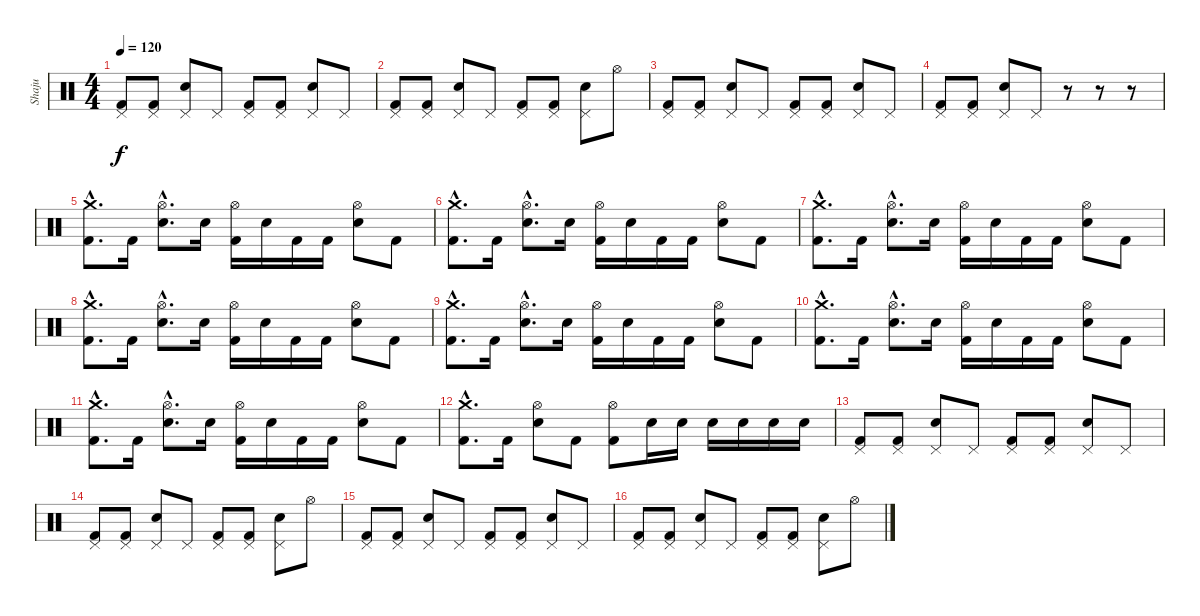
\track ("Shaju" "Shaju") {instrument percussion}
\staff {score}
\articulation defaults
\ts (4 4)
\tempo 120
\clef neutral
\ks c
("Pedal Hi-Hat (hit)" "Kick (hit) 2").8{dy f} ("Pedal Hi-Hat (hit)" "Kick (hit) 2").8 ("Pedal Hi-Hat (hit)" "Electric Snare (hit)").8 "Pedal Hi-Hat (hit)".8 ("Pedal Hi-Hat (hit)" "Kick (hit) 2").8 ("Pedal Hi-Hat (hit)" "Kick (hit) 2").8 ("Pedal Hi-Hat (hit)" "Electric Snare (hit)").8 "Pedal Hi-Hat (hit)".8 |
("Pedal Hi-Hat (hit)" "Kick (hit) 2").8 ("Pedal Hi-Hat (hit)" "Kick (hit) 2").8 ("Pedal Hi-Hat (hit)" "Electric Snare (hit)").8 "Pedal Hi-Hat (hit)".8 ("Pedal Hi-Hat (hit)" "Kick (hit) 2").8 ("Pedal Hi-Hat (hit)" "Kick (hit) 2").8 ("Pedal Hi-Hat (hit)" "Electric Snare (hit)").8 "Hi-Hat (open)".8 |
("Pedal Hi-Hat (hit)" "Kick (hit) 2").8 ("Pedal Hi-Hat (hit)" "Kick (hit) 2").8 ("Pedal Hi-Hat (hit)" "Electric Snare (hit)").8 "Pedal Hi-Hat (hit)".8 ("Pedal Hi-Hat (hit)" "Kick (hit) 2").8 ("Pedal Hi-Hat (hit)" "Kick (hit) 2").8 ("Pedal Hi-Hat (hit)" "Electric Snare (hit)").8 "Pedal Hi-Hat (hit)".8 |
("Pedal Hi-Hat (hit)" "Kick (hit) 2").8 ("Pedal Hi-Hat (hit)" "Kick (hit) 2").8 ("Pedal Hi-Hat (hit)" "Electric Snare (hit)").8 "Pedal Hi-Hat (hit)".8 r.8 r.8 r.8 |
("Crash medium (hit)"{hac} "Kick (hit) 2"{hac}).8{d} "Kick (hit) 2".16 ("Hi-Hat (open)"{hac} "Electric Snare (hit)"{hac}).8{d} "Electric Snare (hit)".16 ("Hi-Hat (open)" "Kick (hit) 2").16 "Electric Snare (hit)".16 "Kick (hit) 2".16 "Kick (hit) 2".16 ("Hi-Hat (open)" "Electric Snare (hit)").8 "Kick (hit) 2".8 |
("Crash medium (hit)"{hac} "Kick (hit) 2"{hac}).8{d} "Kick (hit) 2".16 ("Hi-Hat (open)"{hac} "Electric Snare (hit)"{hac}).8{d} "Electric Snare (hit)".16 ("Hi-Hat (open)" "Kick (hit) 2").16 "Electric Snare (hit)".16 "Kick (hit) 2".16 "Kick (hit) 2".16 ("Hi-Hat (open)" "Electric Snare (hit)").8 "Kick (hit) 2".8 |
("Crash medium (hit)"{hac} "Kick (hit) 2"{hac}).8{d} "Kick (hit) 2".16 ("Hi-Hat (open)"{hac} "Electric Snare (hit)"{hac}).8{d} "Electric Snare (hit)".16 ("Hi-Hat (open)" "Kick (hit) 2").16 "Electric Snare (hit)".16 "Kick (hit) 2".16 "Kick (hit) 2".16 ("Hi-Hat (open)" "Electric Snare (hit)").8 "Kick (hit) 2".8 |
("Crash medium (hit)"{hac} "Kick (hit) 2"{hac}).8{d} "Kick (hit) 2".16 ("Hi-Hat (open)"{hac} "Electric Snare (hit)"{hac}).8{d} "Electric Snare (hit)".16 ("Hi-Hat (open)" "Kick (hit) 2").16 "Electric Snare (hit)".16 "Kick (hit) 2".16 "Kick (hit) 2".16 ("Hi-Hat (open)" "Electric Snare (hit)").8 "Kick (hit) 2".8 |
("Crash medium (hit)"{hac} "Kick (hit) 2"{hac}).8{d} "Kick (hit) 2".16 ("Hi-Hat (open)"{hac} "Electric Snare (hit)"{hac}).8{d} "Electric Snare (hit)".16 ("Hi-Hat (open)" "Kick (hit) 2").16 "Electric Snare (hit)".16 "Kick (hit) 2".16 "Kick (hit) 2".16 ("Hi-Hat (open)" "Electric Snare (hit)").8 "Kick (hit) 2".8 |
("Crash medium (hit)"{hac} "Kick (hit) 2"{hac}).8{d} "Kick (hit) 2".16 ("Hi-Hat (open)"{hac} "Electric Snare (hit)"{hac}).8{d} "Electric Snare (hit)".16 ("Hi-Hat (open)" "Kick (hit) 2").16 "Electric Snare (hit)".16 "Kick (hit) 2".16 "Kick (hit) 2".16 ("Hi-Hat (open)" "Electric Snare (hit)").8 "Kick (hit) 2".8 |
("Crash medium (hit)"{hac} "Kick (hit) 2"{hac}).8{d} "Kick (hit) 2".16 ("Hi-Hat (open)"{hac} "Electric Snare (hit)"{hac}).8{d} "Electric Snare (hit)".16 ("Hi-Hat (open)" "Kick (hit) 2").16 "Electric Snare (hit)".16 "Kick (hit) 2".16 "Kick (hit) 2".16 ("Hi-Hat (open)" "Electric Snare (hit)").8 "Kick (hit) 2".8 |
("Crash medium (hit)"{hac} "Kick (hit) 2"{hac}).8{d} "Kick (hit) 2".16 ("Hi-Hat (open)" "Electric Snare (hit)").8 "Kick (hit) 2".8 ("Hi-Hat (open)" "Kick (hit) 2").8 "Electric Snare (hit)".16 "Electric Snare (hit)".16 "Electric Snare (hit)".16 "Electric Snare (hit)".16 "Electric Snare (hit)".16 "Electric Snare (hit)".16 |
("Pedal Hi-Hat (hit)" "Kick (hit) 2").8 ("Pedal Hi-Hat (hit)" "Kick (hit) 2").8 ("Pedal Hi-Hat (hit)" "Electric Snare (hit)").8 "Pedal Hi-Hat (hit)".8 ("Pedal Hi-Hat (hit)" "Kick (hit) 2").8 ("Pedal Hi-Hat (hit)" "Kick (hit) 2").8 ("Pedal Hi-Hat (hit)" "Electric Snare (hit)").8 "Pedal Hi-Hat (hit)".8 |
("Pedal Hi-Hat (hit)" "Kick (hit) 2").8 ("Pedal Hi-Hat (hit)" "Kick (hit) 2").8 ("Pedal Hi-Hat (hit)" "Electric Snare (hit)").8 "Pedal Hi-Hat (hit)".8 ("Pedal Hi-Hat (hit)" "Kick (hit) 2").8 ("Pedal Hi-Hat (hit)" "Kick (hit) 2").8 ("Pedal Hi-Hat (hit)" "Electric Snare (hit)").8 "Hi-Hat (open)".8 |
("Pedal Hi-Hat (hit)" "Kick (hit) 2").8 ("Pedal Hi-Hat (hit)" "Kick (hit) 2").8 ("Pedal Hi-Hat (hit)" "Electric Snare (hit)").8 "Pedal Hi-Hat (hit)".8 ("Pedal Hi-Hat (hit)" "Kick (hit) 2").8 ("Pedal Hi-Hat (hit)" "Kick (hit) 2").8 ("Pedal Hi-Hat (hit)" "Electric Snare (hit)").8 "Pedal Hi-Hat (hit)".8 |
("Pedal Hi-Hat (hit)" "Kick (hit) 2").8 ("Pedal Hi-Hat (hit)" "Kick (hit) 2").8 ("Pedal Hi-Hat (hit)" "Electric Snare (hit)").8 "Pedal Hi-Hat (hit)".8 ("Pedal Hi-Hat (hit)" "Kick (hit) 2").8 ("Pedal Hi-Hat (hit)" "Kick (hit) 2").8 ("Pedal Hi-Hat (hit)" "Electric Snare (hit)").8 "Hi-Hat (open)".8
